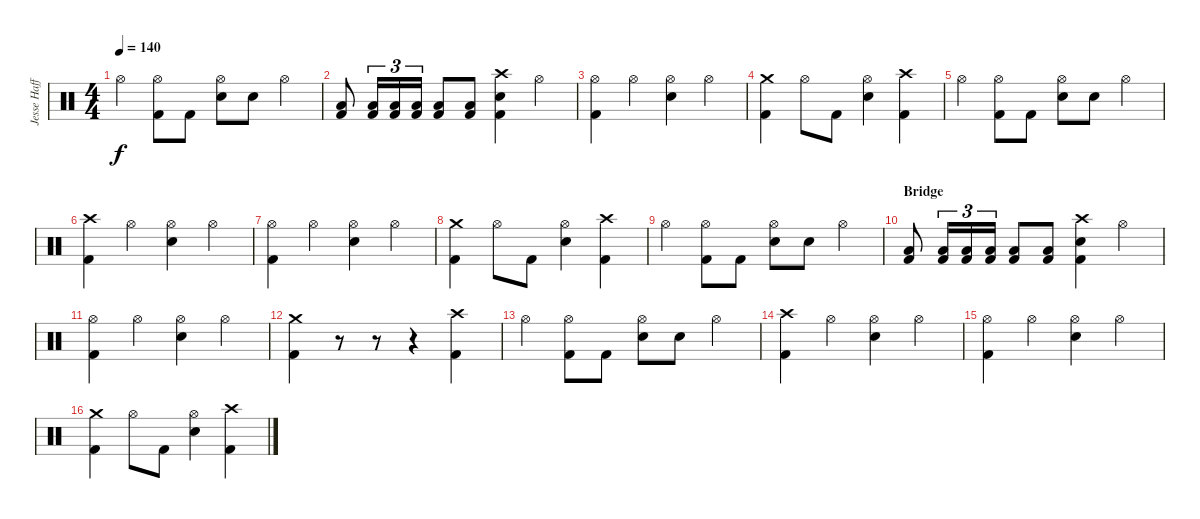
\track ("Jesse Haff" "Jesse Haff") {instrument percussion}
\staff {score}
\articulation defaults
\ts (4 4)
\tempo 140
\clef neutral
\ks c "Hi-Hat (open)".4{dy f}
("Hi-Hat (open)" "Kick (hit) 2").8 "Kick (hit) 2".8 ("Hi-Hat (open)" "Electric Snare (hit)").8 "Electric Snare (hit)".8 "Hi-Hat (open)".4 |
("Low Floor Tom (hit)" "Kick (hit) 2").8 ("Low Floor Tom (hit)" "Kick (hit) 2").16{tu (3 2)} ("Low Floor Tom (hit)" "Kick (hit) 2").16{tu (3 2)} ("Low Floor Tom (hit)" "Kick (hit) 2").16{tu (3 2)} ("Low Floor Tom (hit)" "Kick (hit) 2").8 ("Low Floor Tom (hit)" "Kick (hit) 2").8 ("Crash high (hit)" "Electric Snare (hit)" "Kick (hit) 2").4 "Hi-Hat (open)".4 |
("Hi-Hat (open)" "Kick (hit) 2").4 "Hi-Hat (open)".4 ("Hi-Hat (open)" "Electric Snare (hit)").4 "Hi-Hat (open)".4 |
("Crash medium (hit)" "Kick (hit) 2").4 "Hi-Hat (open)".8 "Kick (hit) 2".8 ("Hi-Hat (open)" "Electric Snare (hit)").4 ("Crash high (hit)" "Kick (hit) 2").4 |
"Hi-Hat (open)".4 ("Hi-Hat (open)" "Kick (hit) 2").8 "Kick (hit) 2".8 ("Hi-Hat (open)" "Electric Snare (hit)").8 "Electric Snare (hit)".8 "Hi-Hat (open)".4 |
("Crash high (hit)" "Kick (hit) 2").4 "Hi-Hat (open)".4 ("Hi-Hat (open)" "Electric Snare (hit)").4 "Hi-Hat (open)".4 |
("Hi-Hat (open)" "Kick (hit) 2").4 "Hi-Hat (open)".4 ("Hi-Hat (open)" "Electric Snare (hit)").4 "Hi-Hat (open)".4 |
("Crash medium (hit)" "Kick (hit) 2").4 "Hi-Hat (open)".8 "Kick (hit) 2".8 ("Hi-Hat (open)" "Electric Snare (hit)").4 ("Crash high (hit)" "Kick (hit) 2").4 |
"Hi-Hat (open)".4 ("Hi-Hat (open)" "Kick (hit) 2").8 "Kick (hit) 2".8 ("Hi-Hat (open)" "Electric Snare (hit)").8 "Electric Snare (hit)".8 "Hi-Hat (open)".4 |
\section ("" "Bridge")
("Low Floor Tom (hit)" "Kick (hit) 2").8 ("Low Floor Tom (hit)" "Kick (hit) 2").16{tu (3 2)} ("Low Floor Tom (hit)" "Kick (hit) 2").16{tu (3 2)} ("Low Floor Tom (hit)" "Kick (hit) 2").16{tu (3 2)} ("Low Floor Tom (hit)" "Kick (hit) 2").8 ("Low Floor Tom (hit)" "Kick (hit) 2").8 ("Crash high (hit)" "Electric Snare (hit)" "Kick (hit) 2").4 "Hi-Hat (open)".4 |
("Hi-Hat (open)" "Kick (hit) 2").4 "Hi-Hat (open)".4 ("Hi-Hat (open)" "Electric Snare (hit)").4 "Hi-Hat (open)".4 |
("Crash medium (hit)" "Kick (hit) 2").4 r.8 r.8 r.4 ("Crash high (hit)" "Kick (hit) 2").4 |
"Hi-Hat (open)".4 ("Hi-Hat (open)" "Kick (hit) 2").8 "Kick (hit) 2".8 ("Hi-Hat (open)" "Electric Snare (hit)").8 "Electric Snare (hit)".8 "Hi-Hat (open)".4 |
("Crash high (hit)" "Kick (hit) 2").4 "Hi-Hat (open)".4 ("Hi-Hat (open)" "Electric Snare (hit)").4 "Hi-Hat (open)".4 |
("Hi-Hat (open)" "Kick (hit) 2").4 "Hi-Hat (open)".4 ("Hi-Hat (open)" "Electric Snare (hit)").4 "Hi-Hat (open)".4 |
("Crash medium (hit)" "Kick (hit) 2").4 "Hi-Hat (open)".8 "Kick (hit) 2".8 ("Hi-Hat (open)" "Electric Snare (hit)").4 ("Crash high (hit)" "Kick (hit) 2").4
